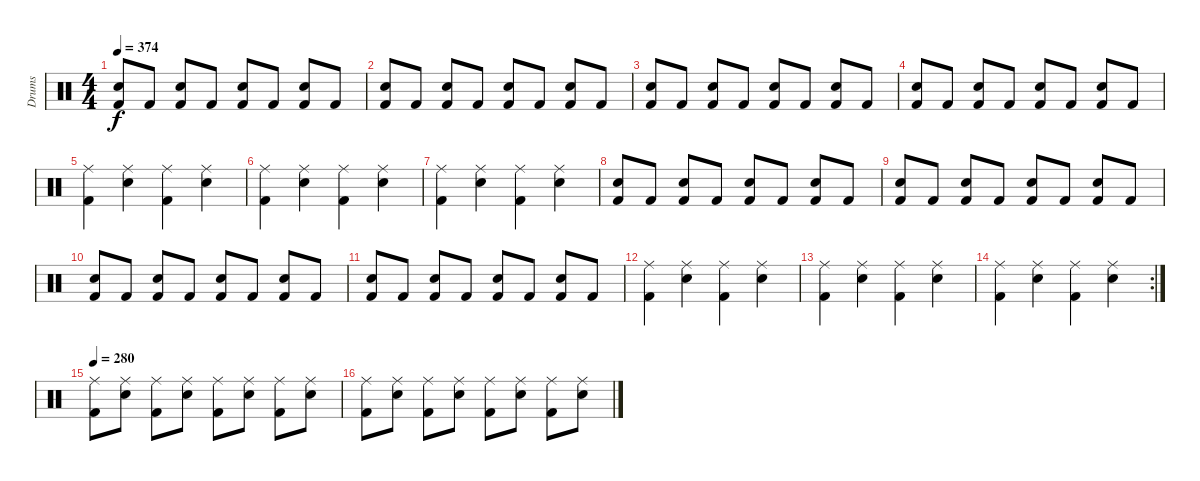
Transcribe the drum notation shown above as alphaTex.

\track ("Drums" "Drums") {instrument percussion}
\staff {score}
\articulation defaults
\ts (4 4)
\tempo 374
\clef neutral
\ks c
("Snare (hit) 2" "Kick (hit) 2").8{dy f} "Kick (hit) 2".8 ("Snare (hit) 2" "Kick (hit) 2").8 "Kick (hit) 2".8 ("Snare (hit) 2" "Kick (hit) 2").8 "Kick (hit) 2".8 ("Snare (hit) 2" "Kick (hit) 2").8 "Kick (hit) 2".8 |
("Snare (hit) 2" "Kick (hit) 2").8 "Kick (hit) 2".8 ("Snare (hit) 2" "Kick (hit) 2").8 "Kick (hit) 2".8 ("Snare (hit) 2" "Kick (hit) 2").8 "Kick (hit) 2".8 ("Snare (hit) 2" "Kick (hit) 2").8 "Kick (hit) 2".8 |
("Snare (hit) 2" "Kick (hit) 2").8 "Kick (hit) 2".8 ("Snare (hit) 2" "Kick (hit) 2").8 "Kick (hit) 2".8 ("Snare (hit) 2" "Kick (hit) 2").8 "Kick (hit) 2".8 ("Snare (hit) 2" "Kick (hit) 2").8 "Kick (hit) 2".8 |
("Snare (hit) 2" "Kick (hit) 2").8 "Kick (hit) 2".8 ("Snare (hit) 2" "Kick (hit) 2").8 "Kick (hit) 2".8 ("Snare (hit) 2" "Kick (hit) 2").8 "Kick (hit) 2".8 ("Snare (hit) 2" "Kick (hit) 2").8 "Kick (hit) 2".8 |
("Ride (middle)" "Kick (hit) 2").4 ("Ride (middle)" "Snare (hit) 2").4 ("Ride (middle)" "Kick (hit) 2").4 ("Ride (middle)" "Snare (hit) 2").4 |
("Ride (middle)" "Kick (hit) 2").4 ("Ride (middle)" "Snare (hit) 2").4 ("Ride (middle)" "Kick (hit) 2").4 ("Ride (middle)" "Snare (hit) 2").4 |
("Ride (middle)" "Kick (hit) 2").4 ("Ride (middle)" "Snare (hit) 2").4 ("Ride (middle)" "Kick (hit) 2").4 ("Ride (middle)" "Snare (hit) 2").4 |
("Snare (hit) 2" "Kick (hit) 2").8 "Kick (hit) 2".8 ("Snare (hit) 2" "Kick (hit) 2").8 "Kick (hit) 2".8 ("Snare (hit) 2" "Kick (hit) 2").8 "Kick (hit) 2".8 ("Snare (hit) 2" "Kick (hit) 2").8 "Kick (hit) 2".8 |
("Snare (hit) 2" "Kick (hit) 2").8 "Kick (hit) 2".8 ("Snare (hit) 2" "Kick (hit) 2").8 "Kick (hit) 2".8 ("Snare (hit) 2" "Kick (hit) 2").8 "Kick (hit) 2".8 ("Snare (hit) 2" "Kick (hit) 2").8 "Kick (hit) 2".8 |
("Snare (hit) 2" "Kick (hit) 2").8 "Kick (hit) 2".8 ("Snare (hit) 2" "Kick (hit) 2").8 "Kick (hit) 2".8 ("Snare (hit) 2" "Kick (hit) 2").8 "Kick (hit) 2".8 ("Snare (hit) 2" "Kick (hit) 2").8 "Kick (hit) 2".8 |
("Snare (hit) 2" "Kick (hit) 2").8 "Kick (hit) 2".8 ("Snare (hit) 2" "Kick (hit) 2").8 "Kick (hit) 2".8 ("Snare (hit) 2" "Kick (hit) 2").8 "Kick (hit) 2".8 ("Snare (hit) 2" "Kick (hit) 2").8 "Kick (hit) 2".8 |
("Ride (middle)" "Kick (hit) 2").4 ("Ride (middle)" "Snare (hit) 2").4 ("Ride (middle)" "Kick (hit) 2").4 ("Ride (middle)" "Snare (hit) 2").4 |
("Ride (middle)" "Kick (hit) 2").4 ("Ride (middle)" "Snare (hit) 2").4 ("Ride (middle)" "Kick (hit) 2").4 ("Ride (middle)" "Snare (hit) 2").4 |
\rc 2
("Ride (middle)" "Kick (hit) 2").4 ("Ride (middle)" "Snare (hit) 2").4 ("Ride (middle)" "Kick (hit) 2").4 ("Ride (middle)" "Snare (hit) 2").4 |
\tempo 280
("Ride (middle)" "Kick (hit) 2").8 ("Ride (middle)" "Snare (hit) 2").8 ("Ride (middle)" "Kick (hit) 2").8 ("Ride (middle)" "Snare (hit) 2").8 ("Ride (middle)" "Kick (hit) 2").8 ("Ride (middle)" "Snare (hit) 2").8 ("Ride (middle)" "Kick (hit) 2").8 ("Ride (middle)" "Snare (hit) 2").8 |
("Ride (middle)" "Kick (hit) 2").8 ("Ride (middle)" "Snare (hit) 2").8 ("Ride (middle)" "Kick (hit) 2").8 ("Ride (middle)" "Snare (hit) 2").8 ("Ride (middle)" "Kick (hit) 2").8 ("Ride (middle)" "Snare (hit) 2").8 ("Ride (middle)" "Kick (hit) 2").8 ("Ride (middle)" "Snare (hit) 2").8
